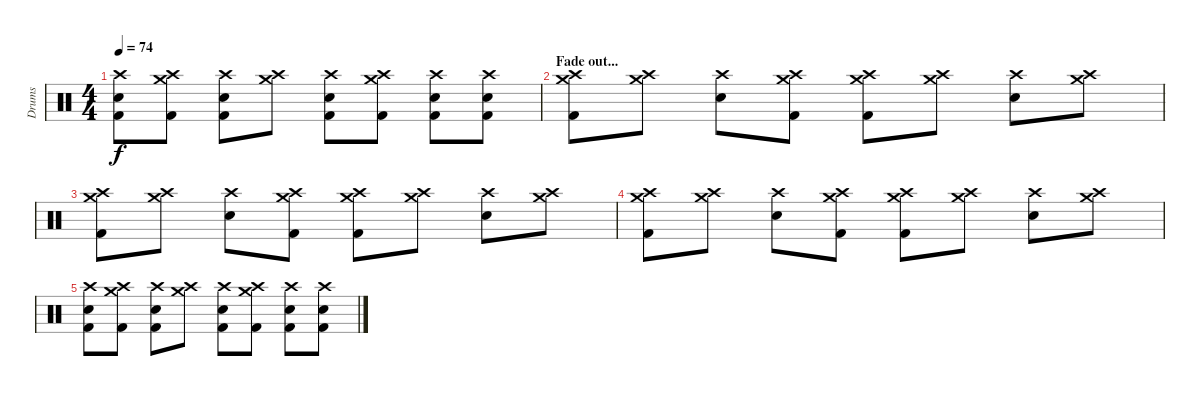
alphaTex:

\track ("Drums" "Drums") {instrument percussion}
\staff {score}
\articulation defaults
\ts (4 4)
\tempo 74
\clef neutral
\ks c
("Crash high (hit)" "Snare (hit) 2" "Kick (hit) 2").8{dy f} ("Crash medium (hit)" "Crash high (hit)" "Kick (hit) 2").8 ("Crash high (hit)" "Snare (hit) 2" "Kick (hit) 2").8 ("Crash medium (hit)" "Crash high (hit)").8 ("Crash high (hit)" "Snare (hit) 2" "Kick (hit) 2").8 ("Crash medium (hit)" "Crash high (hit)" "Kick (hit) 2").8 ("Crash high (hit)" "Snare (hit) 2" "Kick (hit) 2").8 ("Crash high (hit)" "Snare (hit) 2" "Kick (hit) 2").8 |
\section ("" "Fade out...")
("Crash medium (hit)" "Crash high (hit)" "Kick (hit) 2").8{volume 0} ("Crash medium (hit)" "Crash high (hit)").8 ("Crash high (hit)" "Snare (hit) 2").8 ("Crash medium (hit)" "Crash high (hit)" "Kick (hit) 2").8 ("Crash medium (hit)" "Crash high (hit)" "Kick (hit) 2").8 ("Crash medium (hit)" "Crash high (hit)").8 ("Crash high (hit)" "Snare (hit) 2").8 ("Crash medium (hit)" "Crash high (hit)").8 |
("Crash medium (hit)" "Crash high (hit)" "Kick (hit) 2").8 ("Crash medium (hit)" "Crash high (hit)").8 ("Crash high (hit)" "Snare (hit) 2").8 ("Crash medium (hit)" "Crash high (hit)" "Kick (hit) 2").8 ("Crash medium (hit)" "Crash high (hit)" "Kick (hit) 2").8 ("Crash medium (hit)" "Crash high (hit)").8 ("Crash high (hit)" "Snare (hit) 2").8 ("Crash medium (hit)" "Crash high (hit)").8 |
("Crash medium (hit)" "Crash high (hit)" "Kick (hit) 2").8 ("Crash medium (hit)" "Crash high (hit)").8 ("Crash high (hit)" "Snare (hit) 2").8 ("Crash medium (hit)" "Crash high (hit)" "Kick (hit) 2").8 ("Crash medium (hit)" "Crash high (hit)" "Kick (hit) 2").8 ("Crash medium (hit)" "Crash high (hit)").8 ("Crash high (hit)" "Snare (hit) 2").8 ("Crash medium (hit)" "Crash high (hit)").8 |
("Crash high (hit)" "Snare (hit) 2" "Kick (hit) 2").8 ("Crash medium (hit)" "Crash high (hit)" "Kick (hit) 2").8 ("Crash high (hit)" "Snare (hit) 2" "Kick (hit) 2").8 ("Crash medium (hit)" "Crash high (hit)").8 ("Crash high (hit)" "Snare (hit) 2" "Kick (hit) 2").8 ("Crash medium (hit)" "Crash high (hit)" "Kick (hit) 2").8 ("Crash high (hit)" "Snare (hit) 2" "Kick (hit) 2").8 ("Crash high (hit)" "Snare (hit) 2" "Kick (hit) 2").8
